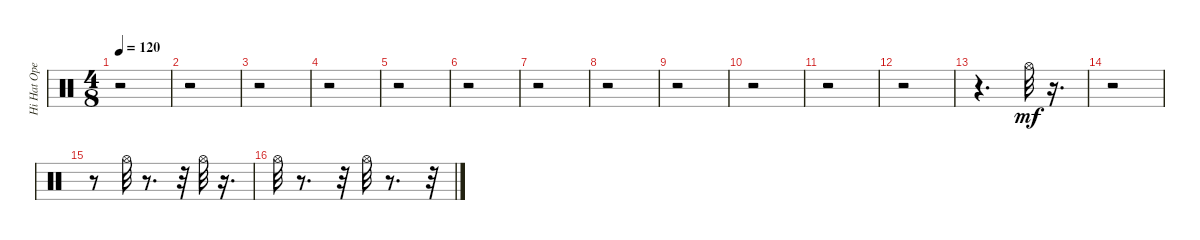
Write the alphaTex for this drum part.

\track ("Hi Hat Open" "Hi Hat Ope") {instrument percussion}
\staff {score}
\articulation defaults
\ts (4 8)
\tempo 120
\clef neutral
\ks c
r.2{dy mf} |
r.2 |
r.2 |
r.2 |
r.2 |
r.2 |
r.2 |
r.2 |
r.2 |
r.2 |
r.2 |
r.2 |
r.4{d} "Hi-Hat (open)".32 r.16{d} |
r.2 |
r.8 "Hi-Hat (open)".32 r.8{d} r.32 "Hi-Hat (open)".32 r.16{d} |
"Hi-Hat (open)".32 r.8{d} r.32 "Hi-Hat (open)".32 r.8{d} r.32
